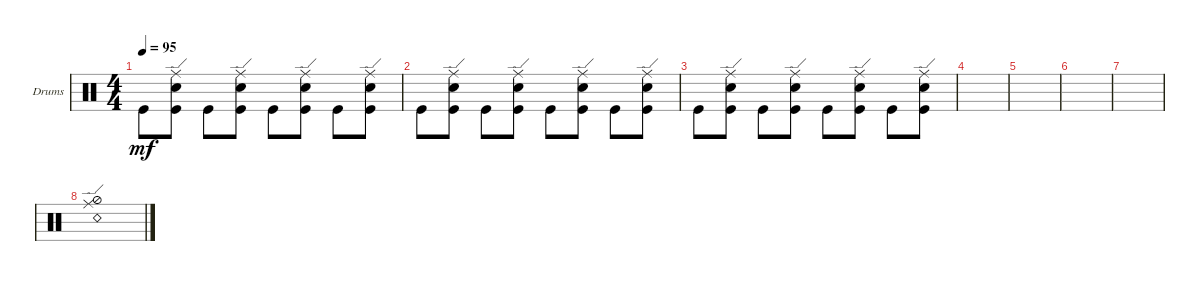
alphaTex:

\bracketExtendMode groupsimilarinstruments
\firstSystemTrackNameOrientation horizontal
\otherSystemsTrackNameOrientation horizontal
\track ("Drumkit" "Drums") {instrument percussion}
\staff {score}
\articulation defaults
\ts (4 4)
\tempo 95
\clef neutral
\scale
0.333333
\ks c "Kick (hit)".8{dy mf}
("Kick (hit)" "Snare (hit) 2" "Ride (edge)").8 "Kick (hit)".8 ("Kick (hit)" "Snare (hit) 2" "Ride (edge)").8 "Kick (hit)".8 ("Kick (hit)" "Snare (hit) 2" "Ride (edge)").8 "Kick (hit)".8 ("Kick (hit)" "Snare (hit) 2" "Ride (edge)").8 |
\scale
0.333333 "Kick (hit)".8 ("Kick (hit)" "Snare (hit) 2" "Ride (edge)").8 "Kick (hit)".8 ("Kick (hit)" "Snare (hit) 2" "Ride (edge)").8 "Kick (hit)".8 ("Kick (hit)" "Snare (hit) 2" "Ride (edge)").8 "Kick (hit)".8 ("Kick (hit)" "Snare (hit) 2" "Ride (edge)").8 |
\scale
0.333333 "Kick (hit)".8 ("Kick (hit)" "Snare (hit) 2" "Ride (edge)").8 "Kick (hit)".8 ("Kick (hit)" "Snare (hit) 2" "Ride (edge)").8 "Kick (hit)".8 ("Kick (hit)" "Snare (hit) 2" "Ride (edge)").8 "Kick (hit)".8 ("Kick (hit)" "Snare (hit) 2" "Ride (edge)").8 |
\scale
0.333333 |
\scale
0.333333 |
\scale
0.333333 |
\scale
0.333333 |
("Snare (rim shot)" "Ride (edge)" "Hi-Hat (half)").1
